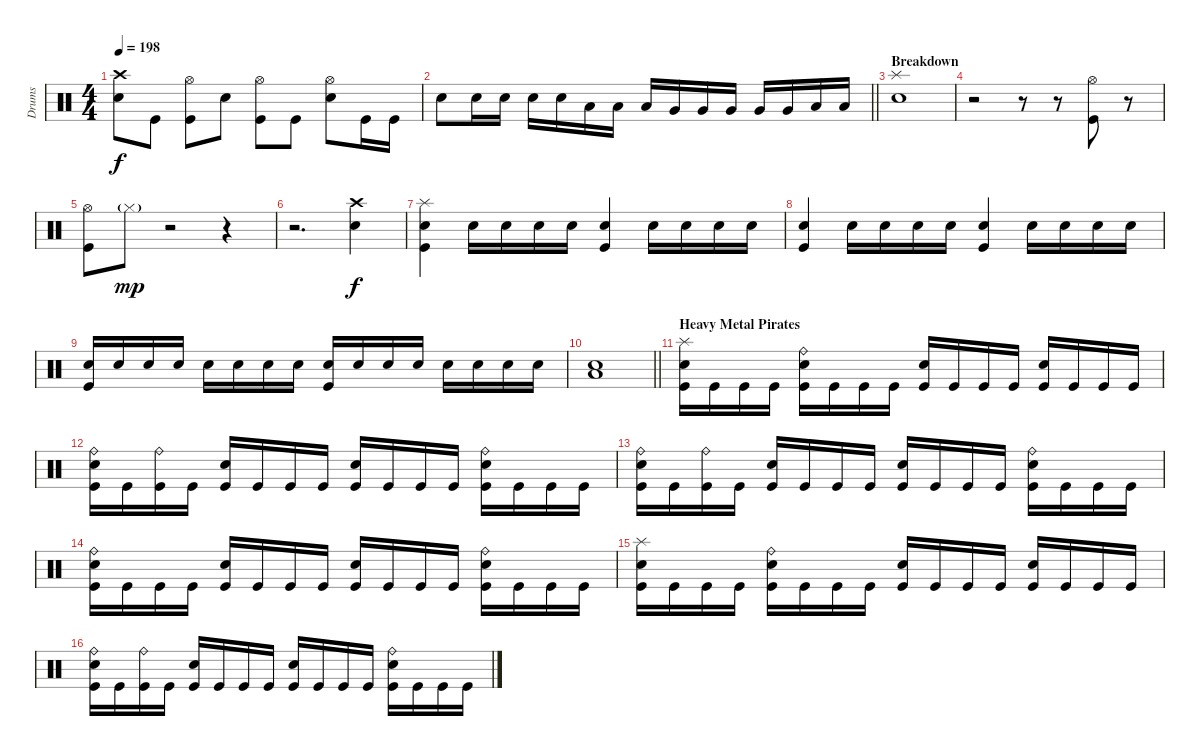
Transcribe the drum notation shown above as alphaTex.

\track ("Drums" "Drums") {instrument percussion}
\staff {score}
\articulation defaults
\ts (4 4)
\tempo 198
\clef neutral
\ks c
("Crash high (hit)" "Electric Snare (hit)").8{dy f} "Kick (hit)".8 ("Hi-Hat (open)" "Kick (hit)").8 "Electric Snare (hit)".8 ("Hi-Hat (open)" "Kick (hit)").8 "Kick (hit)".8 ("Hi-Hat (open)" "Electric Snare (hit)").8 "Kick (hit)".16 "Kick (hit)".16 |
\barLineRight lightlight "Electric Snare (hit)".8 "Electric Snare (hit)".16 "Electric Snare (hit)".16 "Electric Snare (hit)".16 "Electric Snare (hit)".16 "Low Tom (hit)".16 "Low Tom (hit)".16 "Low Tom (hit)".16 "Very Low Tom (hit)".16 "Very Low Tom (hit)".16 "Very Low Tom (hit)".16 "Very Low Tom (hit)".16 "Very Low Tom (hit)".16 "Low Floor Tom (hit)".16 "Low Floor Tom (hit)".16
|
\section ("" "Breakdown")
("Splash (hit)" "Electric Snare (hit)").1 |
r.2 r.8 r.8 ("Hi-Hat (open)" "Kick (hit)").8 r.8 |
("Hi-Hat (open)" "Kick (hit)").8 "Hi-Hat (closed)"{g}.8{dy mp} r.2 r.4 |
r.2{d} ("Crash high (hit)" "Electric Snare (hit)").4{dy f} |
("Splash (hit)" "Electric Snare (hit)" "Kick (hit)").4 "Electric Snare (hit)".16 "Electric Snare (hit)".16 "Electric Snare (hit)".16 "Electric Snare (hit)".16 ("Electric Snare (hit)" "Kick (hit)").4 "Electric Snare (hit)".16 "Electric Snare (hit)".16 "Electric Snare (hit)".16 "Electric Snare (hit)".16 |
("Electric Snare (hit)" "Kick (hit)").4 "Electric Snare (hit)".16 "Electric Snare (hit)".16 "Electric Snare (hit)".16 "Electric Snare (hit)".16 ("Electric Snare (hit)" "Kick (hit)").4 "Electric Snare (hit)".16 "Electric Snare (hit)".16 "Electric Snare (hit)".16 "Electric Snare (hit)".16 |
("Electric Snare (hit)" "Kick (hit)").16 "Electric Snare (hit)".16 "Electric Snare (hit)".16 "Electric Snare (hit)".16 "Electric Snare (hit)".16 "Electric Snare (hit)".16 "Electric Snare (hit)".16 "Electric Snare (hit)".16 ("Electric Snare (hit)" "Kick (hit)").16 "Electric Snare (hit)".16 "Electric Snare (hit)".16 "Electric Snare (hit)".16 "Electric Snare (hit)".16 "Electric Snare (hit)".16 "Electric Snare (hit)".16 "Electric Snare (hit)".16 |
\barLineRight lightlight
("Electric Snare (hit)" "Low Floor Tom (hit)").1 |
\section ("" "Heavy Metal Pirates")
("Splash (hit)" "Electric Snare (hit)" "Kick (hit)").16 "Kick (hit)".16 "Kick (hit)".16 "Kick (hit)".16 ("Ride (bell)" "Electric Snare (hit)" "Kick (hit)").16 "Kick (hit)".16 "Kick (hit)".16 "Kick (hit)".16 ("Electric Snare (hit)" "Kick (hit)").16 "Kick (hit)".16 "Kick (hit)".16 "Kick (hit)".16 ("Electric Snare (hit)" "Kick (hit)").16 "Kick (hit)".16 "Kick (hit)".16 "Kick (hit)".16 |
("Ride (bell)" "Electric Snare (hit)" "Kick (hit)").16 "Kick (hit)".16 ("Ride (bell)" "Kick (hit)").16 "Kick (hit)".16 ("Electric Snare (hit)" "Kick (hit)").16 "Kick (hit)".16 "Kick (hit)".16 "Kick (hit)".16 ("Electric Snare (hit)" "Kick (hit)").16 "Kick (hit)".16 "Kick (hit)".16 "Kick (hit)".16 ("Ride (bell)" "Electric Snare (hit)" "Kick (hit)").16 "Kick (hit)".16 "Kick (hit)".16 "Kick (hit)".16 |
("Ride (bell)" "Electric Snare (hit)" "Kick (hit)").16 "Kick (hit)".16 ("Ride (bell)" "Kick (hit)").16 "Kick (hit)".16 ("Electric Snare (hit)" "Kick (hit)").16 "Kick (hit)".16 "Kick (hit)".16 "Kick (hit)".16 ("Electric Snare (hit)" "Kick (hit)").16 "Kick (hit)".16 "Kick (hit)".16 "Kick (hit)".16 ("Ride (bell)" "Electric Snare (hit)" "Kick (hit)").16 "Kick (hit)".16 "Kick (hit)".16 "Kick (hit)".16 |
("Ride (bell)" "Electric Snare (hit)" "Kick (hit)").16 "Kick (hit)".16 "Kick (hit)".16 "Kick (hit)".16 ("Electric Snare (hit)" "Kick (hit)").16 "Kick (hit)".16 "Kick (hit)".16 "Kick (hit)".16 ("Electric Snare (hit)" "Kick (hit)").16 "Kick (hit)".16 "Kick (hit)".16 "Kick (hit)".16 ("Ride (bell)" "Electric Snare (hit)" "Kick (hit)").16 "Kick (hit)".16 "Kick (hit)".16 "Kick (hit)".16 |
("Splash (hit)" "Electric Snare (hit)" "Kick (hit)").16 "Kick (hit)".16 "Kick (hit)".16 "Kick (hit)".16 ("Ride (bell)" "Electric Snare (hit)" "Kick (hit)").16 "Kick (hit)".16 "Kick (hit)".16 "Kick (hit)".16 ("Electric Snare (hit)" "Kick (hit)").16 "Kick (hit)".16 "Kick (hit)".16 "Kick (hit)".16 ("Electric Snare (hit)" "Kick (hit)").16 "Kick (hit)".16 "Kick (hit)".16 "Kick (hit)".16 |
("Ride (bell)" "Electric Snare (hit)" "Kick (hit)").16 "Kick (hit)".16 ("Ride (bell)" "Kick (hit)").16 "Kick (hit)".16 ("Electric Snare (hit)" "Kick (hit)").16 "Kick (hit)".16 "Kick (hit)".16 "Kick (hit)".16 ("Electric Snare (hit)" "Kick (hit)").16 "Kick (hit)".16 "Kick (hit)".16 "Kick (hit)".16 ("Ride (bell)" "Electric Snare (hit)" "Kick (hit)").16 "Kick (hit)".16 "Kick (hit)".16 "Kick (hit)".16
